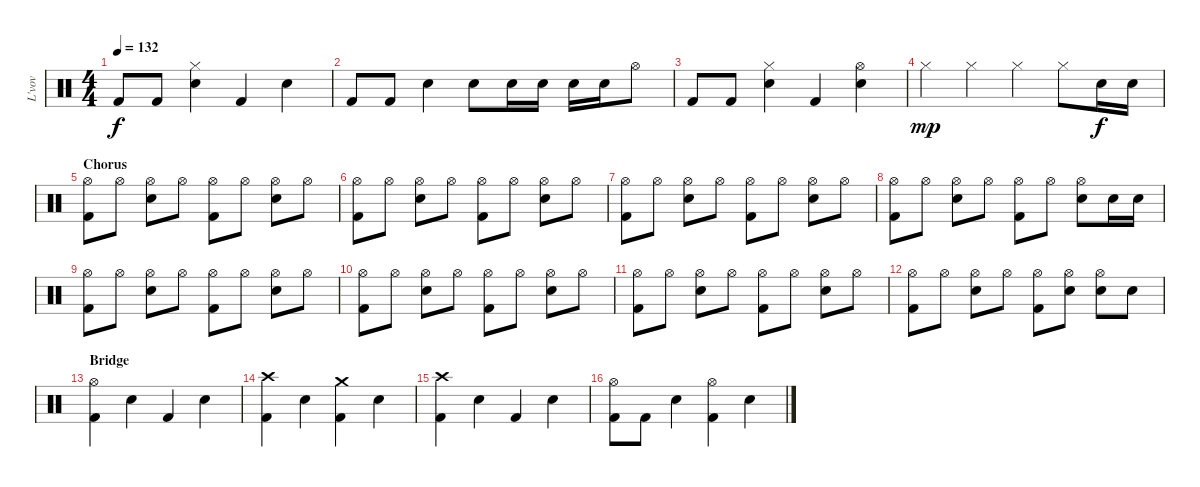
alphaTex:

\track ("L'vov" "L'vov") {instrument percussion}
\staff {score}
\articulation defaults
\ts (4 4)
\tempo 132
\clef neutral
\ks c "Kick (hit) 2".8{dy f} "Kick (hit) 2".8
("Snare (hit) 2" "Hi-Hat (closed)").4 "Kick (hit) 2".4 "Snare (hit) 2".4 |
"Kick (hit) 2".8 "Kick (hit) 2".8 "Snare (hit) 2".4 "Snare (hit) 2".8 "Snare (hit) 2".16 "Snare (hit) 2".16 "Snare (hit) 2".16 "Snare (hit) 2".16 "Hi-Hat (open)".8 |
"Kick (hit) 2".8 "Kick (hit) 2".8 ("Snare (hit) 2" "Hi-Hat (closed)").4 "Kick (hit) 2".4 ("Snare (hit) 2" "Hi-Hat (open)").4 |
"Hi-Hat (closed)".4{dy mp} "Hi-Hat (closed)".4 "Hi-Hat (closed)".4 "Hi-Hat (closed)".8 "Snare (hit) 2".16{dy f} "Snare (hit) 2".16 |
\section ("" "Chorus")
("Hi-Hat (open)" "Kick (hit) 2").8 "Hi-Hat (open)".8 ("Hi-Hat (open)" "Snare (hit) 2").8 "Hi-Hat (open)".8 ("Hi-Hat (open)" "Kick (hit) 2").8 "Hi-Hat (open)".8 ("Hi-Hat (open)" "Snare (hit) 2").8 "Hi-Hat (open)".8 |
("Hi-Hat (open)" "Kick (hit) 2").8 "Hi-Hat (open)".8 ("Hi-Hat (open)" "Snare (hit) 2").8 "Hi-Hat (open)".8 ("Hi-Hat (open)" "Kick (hit) 2").8 "Hi-Hat (open)".8 ("Hi-Hat (open)" "Snare (hit) 2").8 "Hi-Hat (open)".8 |
("Hi-Hat (open)" "Kick (hit) 2").8 "Hi-Hat (open)".8 ("Hi-Hat (open)" "Snare (hit) 2").8 "Hi-Hat (open)".8 ("Hi-Hat (open)" "Kick (hit) 2").8 "Hi-Hat (open)".8 ("Hi-Hat (open)" "Snare (hit) 2").8 "Hi-Hat (open)".8 |
("Hi-Hat (open)" "Kick (hit) 2").8 "Hi-Hat (open)".8 ("Hi-Hat (open)" "Snare (hit) 2").8 "Hi-Hat (open)".8 ("Hi-Hat (open)" "Kick (hit) 2").8 "Hi-Hat (open)".8 ("Hi-Hat (open)" "Snare (hit) 2").8 "Snare (hit) 2".16 "Snare (hit) 2".16 |
("Hi-Hat (open)" "Kick (hit) 2").8 "Hi-Hat (open)".8 ("Hi-Hat (open)" "Snare (hit) 2").8 "Hi-Hat (open)".8 ("Hi-Hat (open)" "Kick (hit) 2").8 "Hi-Hat (open)".8 ("Hi-Hat (open)" "Snare (hit) 2").8 "Hi-Hat (open)".8 |
("Hi-Hat (open)" "Kick (hit) 2").8 "Hi-Hat (open)".8 ("Hi-Hat (open)" "Snare (hit) 2").8 "Hi-Hat (open)".8 ("Hi-Hat (open)" "Kick (hit) 2").8 "Hi-Hat (open)".8 ("Hi-Hat (open)" "Snare (hit) 2").8 "Hi-Hat (open)".8 |
("Hi-Hat (open)" "Kick (hit) 2").8 "Hi-Hat (open)".8 ("Hi-Hat (open)" "Snare (hit) 2").8 "Hi-Hat (open)".8 ("Hi-Hat (open)" "Kick (hit) 2").8 "Hi-Hat (open)".8 ("Hi-Hat (open)" "Snare (hit) 2").8 "Hi-Hat (open)".8 |
("Hi-Hat (open)" "Kick (hit) 2").8 "Hi-Hat (open)".8 ("Hi-Hat (open)" "Snare (hit) 2").8 "Hi-Hat (open)".8 ("Hi-Hat (open)" "Kick (hit) 2").8 ("Hi-Hat (open)" "Snare (hit) 2").8 ("Hi-Hat (open)" "Snare (hit) 2").8 "Snare (hit) 2".8 |
\section ("" "Bridge")
("Kick (hit) 2" "Hi-Hat (open)").4 "Snare (hit) 2".4 "Kick (hit) 2".4 "Snare (hit) 2".4 |
("Kick (hit) 2" "Crash high (hit)").4 "Snare (hit) 2".4 ("Kick (hit) 2" "Crash medium (hit)").4 "Snare (hit) 2".4 |
("Kick (hit) 2" "Crash high (hit)").4 "Snare (hit) 2".4 "Kick (hit) 2".4 "Snare (hit) 2".4 |
("Kick (hit) 2" "Hi-Hat (open)").8 "Kick (hit) 2".8 "Snare (hit) 2".4 ("Kick (hit) 2" "Hi-Hat (open)").4 "Snare (hit) 2".4
